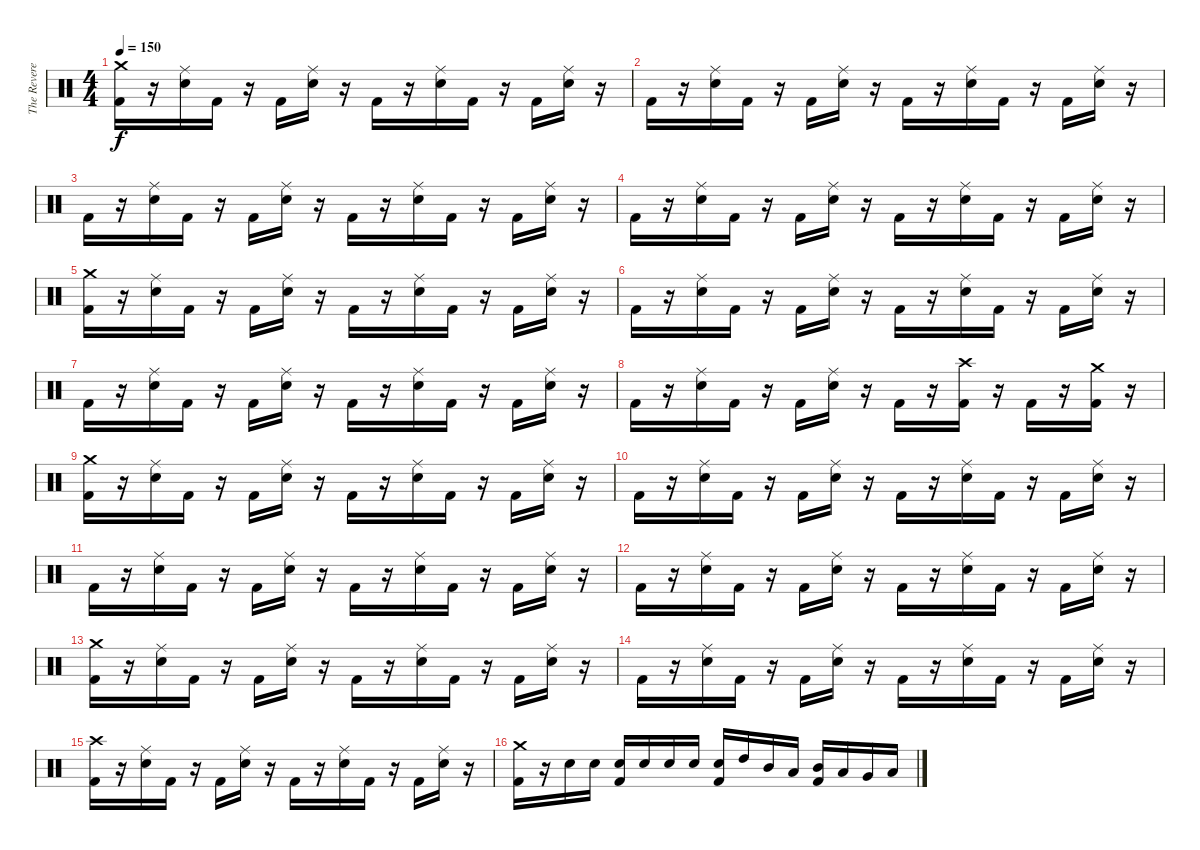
\track ("The Reverend" "The Revere") {instrument percussion}
\staff {score}
\articulation defaults
\ts (4 4)
\tempo 150
\clef neutral
\ks c
("Crash medium (hit)" "Kick (hit) 2").16{dy f} r.16 ("Ride (middle)" "Electric Snare (hit)").16 "Kick (hit) 2".16 r.16 "Kick (hit) 2".16 ("Ride (middle)" "Electric Snare (hit)").16 r.16 "Kick (hit) 2".16 r.16 ("Ride (middle)" "Electric Snare (hit)").16 "Kick (hit) 2".16 r.16 "Kick (hit) 2".16 ("Ride (middle)" "Electric Snare (hit)").16 r.16 |
"Kick (hit) 2".16 r.16 ("Ride (middle)" "Electric Snare (hit)").16 "Kick (hit) 2".16 r.16 "Kick (hit) 2".16 ("Ride (middle)" "Electric Snare (hit)").16 r.16 "Kick (hit) 2".16 r.16 ("Ride (middle)" "Electric Snare (hit)").16 "Kick (hit) 2".16 r.16 "Kick (hit) 2".16 ("Ride (middle)" "Electric Snare (hit)").16 r.16 |
"Kick (hit) 2".16 r.16 ("Ride (middle)" "Electric Snare (hit)").16 "Kick (hit) 2".16 r.16 "Kick (hit) 2".16 ("Ride (middle)" "Electric Snare (hit)").16 r.16 "Kick (hit) 2".16 r.16 ("Ride (middle)" "Electric Snare (hit)").16 "Kick (hit) 2".16 r.16 "Kick (hit) 2".16 ("Ride (middle)" "Electric Snare (hit)").16 r.16 |
"Kick (hit) 2".16 r.16 ("Ride (middle)" "Electric Snare (hit)").16 "Kick (hit) 2".16 r.16 "Kick (hit) 2".16 ("Ride (middle)" "Electric Snare (hit)").16 r.16 "Kick (hit) 2".16 r.16 ("Ride (middle)" "Electric Snare (hit)").16 "Kick (hit) 2".16 r.16 "Kick (hit) 2".16 ("Ride (middle)" "Electric Snare (hit)").16 r.16 |
("Crash medium (hit)" "Kick (hit) 2").16 r.16 ("Ride (middle)" "Electric Snare (hit)").16 "Kick (hit) 2".16 r.16 "Kick (hit) 2".16 ("Ride (middle)" "Electric Snare (hit)").16 r.16 "Kick (hit) 2".16 r.16 ("Ride (middle)" "Electric Snare (hit)").16 "Kick (hit) 2".16 r.16 "Kick (hit) 2".16 ("Ride (middle)" "Electric Snare (hit)").16 r.16 |
"Kick (hit) 2".16 r.16 ("Ride (middle)" "Electric Snare (hit)").16 "Kick (hit) 2".16 r.16 "Kick (hit) 2".16 ("Ride (middle)" "Electric Snare (hit)").16 r.16 "Kick (hit) 2".16 r.16 ("Ride (middle)" "Electric Snare (hit)").16 "Kick (hit) 2".16 r.16 "Kick (hit) 2".16 ("Ride (middle)" "Electric Snare (hit)").16 r.16 |
"Kick (hit) 2".16 r.16 ("Ride (middle)" "Electric Snare (hit)").16 "Kick (hit) 2".16 r.16 "Kick (hit) 2".16 ("Ride (middle)" "Electric Snare (hit)").16 r.16 "Kick (hit) 2".16 r.16 ("Ride (middle)" "Electric Snare (hit)").16 "Kick (hit) 2".16 r.16 "Kick (hit) 2".16 ("Ride (middle)" "Electric Snare (hit)").16 r.16 |
"Kick (hit) 2".16 r.16 ("Ride (middle)" "Electric Snare (hit)").16 "Kick (hit) 2".16 r.16 "Kick (hit) 2".16 ("Ride (middle)" "Electric Snare (hit)").16 r.16 "Kick (hit) 2".16 r.16 ("Crash high (hit)" "Kick (hit) 2").16 r.16 "Kick (hit) 2".16 r.16 ("Crash medium (hit)" "Kick (hit) 2").16 r.16 |
("Crash medium (hit)" "Kick (hit) 2").16 r.16 ("Ride (middle)" "Electric Snare (hit)").16 "Kick (hit) 2".16 r.16 "Kick (hit) 2".16 ("Ride (middle)" "Electric Snare (hit)").16 r.16 "Kick (hit) 2".16 r.16 ("Ride (middle)" "Electric Snare (hit)").16 "Kick (hit) 2".16 r.16 "Kick (hit) 2".16 ("Ride (middle)" "Electric Snare (hit)").16 r.16 |
"Kick (hit) 2".16 r.16 ("Ride (middle)" "Electric Snare (hit)").16 "Kick (hit) 2".16 r.16 "Kick (hit) 2".16 ("Ride (middle)" "Electric Snare (hit)").16 r.16 "Kick (hit) 2".16 r.16 ("Ride (middle)" "Electric Snare (hit)").16 "Kick (hit) 2".16 r.16 "Kick (hit) 2".16 ("Ride (middle)" "Electric Snare (hit)").16 r.16 |
"Kick (hit) 2".16 r.16 ("Ride (middle)" "Electric Snare (hit)").16 "Kick (hit) 2".16 r.16 "Kick (hit) 2".16 ("Ride (middle)" "Electric Snare (hit)").16 r.16 "Kick (hit) 2".16 r.16 ("Ride (middle)" "Electric Snare (hit)").16 "Kick (hit) 2".16 r.16 "Kick (hit) 2".16 ("Ride (middle)" "Electric Snare (hit)").16 r.16 |
"Kick (hit) 2".16 r.16 ("Ride (middle)" "Electric Snare (hit)").16 "Kick (hit) 2".16 r.16 "Kick (hit) 2".16 ("Ride (middle)" "Electric Snare (hit)").16 r.16 "Kick (hit) 2".16 r.16 ("Ride (middle)" "Electric Snare (hit)").16 "Kick (hit) 2".16 r.16 "Kick (hit) 2".16 ("Ride (middle)" "Electric Snare (hit)").16 r.16 |
("Crash medium (hit)" "Kick (hit) 2").16 r.16 ("Ride (middle)" "Electric Snare (hit)").16 "Kick (hit) 2".16 r.16 "Kick (hit) 2".16 ("Ride (middle)" "Electric Snare (hit)").16 r.16 "Kick (hit) 2".16 r.16 ("Ride (middle)" "Electric Snare (hit)").16 "Kick (hit) 2".16 r.16 "Kick (hit) 2".16 ("Ride (middle)" "Electric Snare (hit)").16 r.16 |
"Kick (hit) 2".16 r.16 ("Ride (middle)" "Electric Snare (hit)").16 "Kick (hit) 2".16 r.16 "Kick (hit) 2".16 ("Ride (middle)" "Electric Snare (hit)").16 r.16 "Kick (hit) 2".16 r.16 ("Ride (middle)" "Electric Snare (hit)").16 "Kick (hit) 2".16 r.16 "Kick (hit) 2".16 ("Ride (middle)" "Electric Snare (hit)").16 r.16 |
("Crash high (hit)" "Kick (hit) 2").16 r.16 ("Ride (middle)" "Electric Snare (hit)").16 "Kick (hit) 2".16 r.16 "Kick (hit) 2".16 ("Ride (middle)" "Electric Snare (hit)").16 r.16 "Kick (hit) 2".16 r.16 ("Ride (middle)" "Electric Snare (hit)").16 "Kick (hit) 2".16 r.16 "Kick (hit) 2".16 ("Ride (middle)" "Electric Snare (hit)").16 r.16 |
("Crash medium (hit)" "Kick (hit) 2").16 r.16 "Electric Snare (hit)".16 "Electric Snare (hit)".16 ("Electric Snare (hit)" "Kick (hit) 2").16 "Electric Snare (hit)".16 "Electric Snare (hit)".16 "Electric Snare (hit)".16 ("Electric Snare (hit)" "Kick (hit) 2").16 "High Tom (hit)".16 "Mid Tom (hit)".16 "Low Tom (hit)".16 ("Mid Tom (hit)" "Kick (hit) 2").16 "Low Tom (hit)".16 "Very Low Tom (hit)".16 "Low Floor Tom (hit)".16
